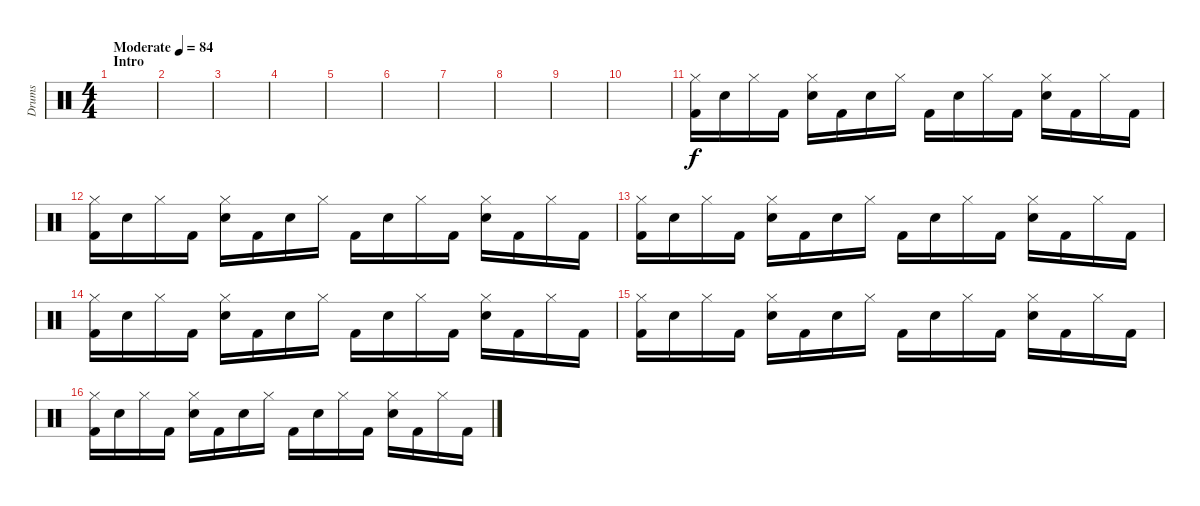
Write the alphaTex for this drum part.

\track ("Drums" "Drums") {instrument percussion}
\staff {score}
\articulation defaults
\ts (4 4)
\section ("" "Intro")
\tempo (84 "Moderate")
\clef neutral
\ks c
|
|
|
|
|
|
|
|
|
|
("Hi-Hat (closed)" "Kick (hit) 2").16{volume 5} "Electric Snare (hit)".16 "Hi-Hat (closed)".16 "Kick (hit) 2".16 ("Hi-Hat (closed)" "Electric Snare (hit)").16 "Kick (hit) 2".16 "Electric Snare (hit)".16 "Hi-Hat (closed)".16 "Kick (hit) 2".16 "Electric Snare (hit)".16 "Hi-Hat (closed)".16 "Kick (hit) 2".16 ("Hi-Hat (closed)" "Electric Snare (hit)").16 "Kick (hit) 2".16 "Hi-Hat (closed)".16 "Kick (hit) 2".16 |
("Hi-Hat (closed)" "Kick (hit) 2").16 "Electric Snare (hit)".16 "Hi-Hat (closed)".16 "Kick (hit) 2".16 ("Hi-Hat (closed)" "Electric Snare (hit)").16 "Kick (hit) 2".16 "Electric Snare (hit)".16 "Hi-Hat (closed)".16 "Kick (hit) 2".16 "Electric Snare (hit)".16 "Hi-Hat (closed)".16 "Kick (hit) 2".16 ("Hi-Hat (closed)" "Electric Snare (hit)").16 "Kick (hit) 2".16 "Hi-Hat (closed)".16 "Kick (hit) 2".16 |
("Hi-Hat (closed)" "Kick (hit) 2").16 "Electric Snare (hit)".16 "Hi-Hat (closed)".16 "Kick (hit) 2".16 ("Hi-Hat (closed)" "Electric Snare (hit)").16 "Kick (hit) 2".16 "Electric Snare (hit)".16 "Hi-Hat (closed)".16 "Kick (hit) 2".16 "Electric Snare (hit)".16 "Hi-Hat (closed)".16 "Kick (hit) 2".16 ("Hi-Hat (closed)" "Electric Snare (hit)").16 "Kick (hit) 2".16 "Hi-Hat (closed)".16 "Kick (hit) 2".16 |
("Hi-Hat (closed)" "Kick (hit) 2").16 "Electric Snare (hit)".16 "Hi-Hat (closed)".16 "Kick (hit) 2".16 ("Hi-Hat (closed)" "Electric Snare (hit)").16 "Kick (hit) 2".16 "Electric Snare (hit)".16 "Hi-Hat (closed)".16 "Kick (hit) 2".16 "Electric Snare (hit)".16 "Hi-Hat (closed)".16 "Kick (hit) 2".16 ("Hi-Hat (closed)" "Electric Snare (hit)").16 "Kick (hit) 2".16 "Hi-Hat (closed)".16 "Kick (hit) 2".16 |
("Hi-Hat (closed)" "Kick (hit) 2").16 "Electric Snare (hit)".16 "Hi-Hat (closed)".16 "Kick (hit) 2".16 ("Hi-Hat (closed)" "Electric Snare (hit)").16 "Kick (hit) 2".16 "Electric Snare (hit)".16 "Hi-Hat (closed)".16 "Kick (hit) 2".16 "Electric Snare (hit)".16 "Hi-Hat (closed)".16 "Kick (hit) 2".16 ("Hi-Hat (closed)" "Electric Snare (hit)").16 "Kick (hit) 2".16 "Hi-Hat (closed)".16 "Kick (hit) 2".16 |
("Hi-Hat (closed)" "Kick (hit) 2").16 "Electric Snare (hit)".16 "Hi-Hat (closed)".16 "Kick (hit) 2".16 ("Hi-Hat (closed)" "Electric Snare (hit)").16 "Kick (hit) 2".16 "Electric Snare (hit)".16 "Hi-Hat (closed)".16 "Kick (hit) 2".16 "Electric Snare (hit)".16 "Hi-Hat (closed)".16 "Kick (hit) 2".16 ("Hi-Hat (closed)" "Electric Snare (hit)").16 "Kick (hit) 2".16 "Hi-Hat (closed)".16 "Kick (hit) 2".16
